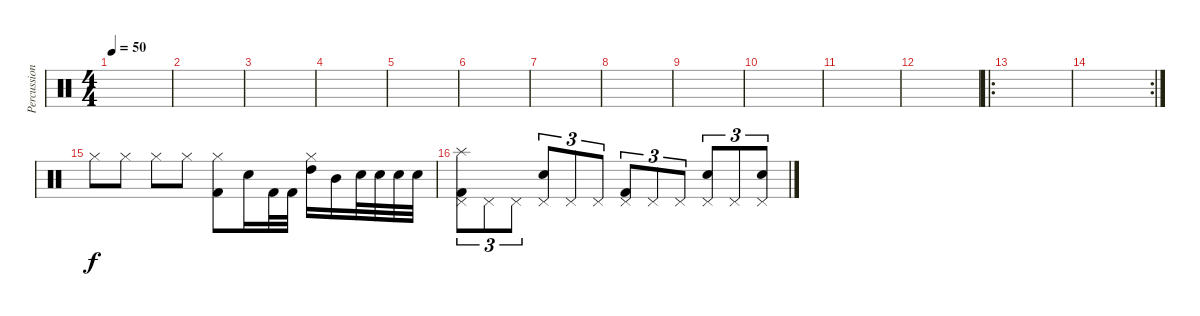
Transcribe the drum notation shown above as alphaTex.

\track ("Percussion" "Percussion") {instrument percussion}
\staff {score}
\articulation defaults
\ts (4 4)
\tempo 50
\clef neutral
\ks c
|
|
|
|
|
|
|
|
|
|
|
|
\ro
|
\rc 2
|
"Hi-Hat (closed)".8 "Hi-Hat (closed)".8 "Hi-Hat (closed)".8 "Hi-Hat (closed)".8 ("Kick (hit) 2" "Hi-Hat (closed)").8 "Electric Snare (hit)".16 "Kick (hit) 2".32 "Kick (hit) 2".32 ("Hi-Hat (closed)" "High Tom (hit)").16 "Mid Tom (hit)".16 "Electric Snare (hit)".32 "Electric Snare (hit)".32 "Electric Snare (hit)".32 "Electric Snare (hit)".32 |
("Pedal Hi-Hat (hit)" "Kick (hit) 2" "Splash (hit)").8{tu (3 2)} "Pedal Hi-Hat (hit)".8{tu (3 2)} "Pedal Hi-Hat (hit)".8{tu (3 2)} ("Pedal Hi-Hat (hit)" "Electric Snare (hit)").8{tu (3 2)} "Pedal Hi-Hat (hit)".8{tu (3 2)} "Pedal Hi-Hat (hit)".8{tu (3 2)} ("Pedal Hi-Hat (hit)" "Kick (hit) 2").8{tu (3 2)} "Pedal Hi-Hat (hit)".8{tu (3 2)} "Pedal Hi-Hat (hit)".8{tu (3 2)} ("Pedal Hi-Hat (hit)" "Electric Snare (hit)").8{tu (3 2)} "Pedal Hi-Hat (hit)".8{tu (3 2)} ("Pedal Hi-Hat (hit)" "Electric Snare (hit)").8{tu (3 2)}
